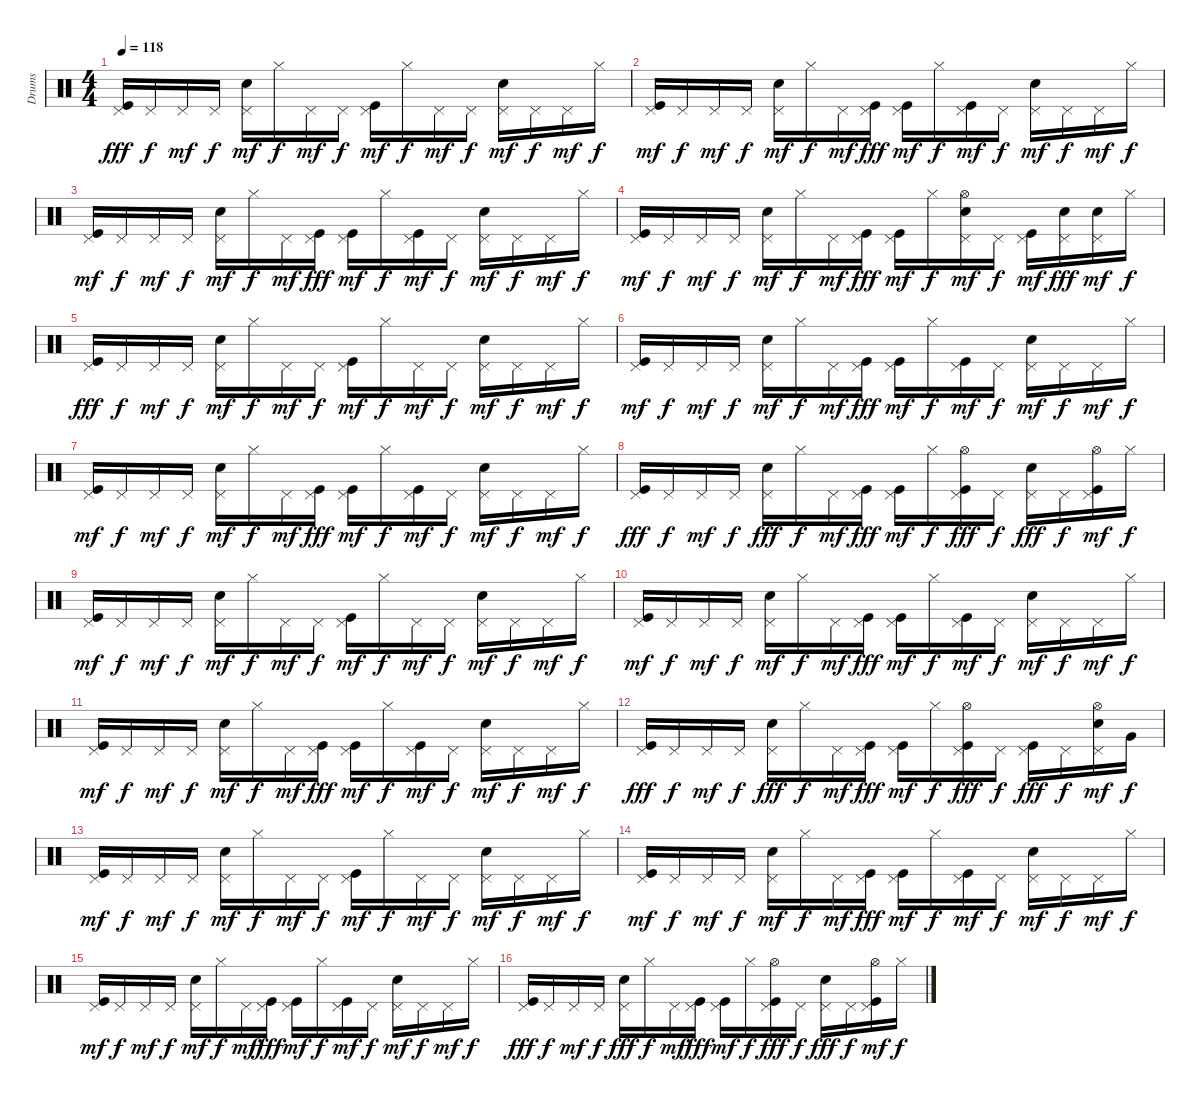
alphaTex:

\track ("Drums" "Drums") {instrument percussion}
\staff {score}
\articulation defaults
\ts (4 4)
\tempo 118
\clef neutral
\ks c
("Pedal Hi-Hat (hit)" "Kick (hit)").16{dy fff} "Pedal Hi-Hat (hit)".16{dy f} "Pedal Hi-Hat (hit)".16{dy mf} "Pedal Hi-Hat (hit)".16{dy f} ("Electric Snare (hit)" "Pedal Hi-Hat (hit)").16{dy mf} "Hi-Hat (closed)".16{dy f} "Pedal Hi-Hat (hit)".16{dy mf} "Pedal Hi-Hat (hit)".16{dy f} ("Kick (hit)" "Pedal Hi-Hat (hit)").16{dy mf} "Hi-Hat (closed)".16{dy f} "Pedal Hi-Hat (hit)".16{dy mf} "Pedal Hi-Hat (hit)".16{dy f} ("Electric Snare (hit)" "Pedal Hi-Hat (hit)").16{dy mf} "Pedal Hi-Hat (hit)".16{dy f} "Pedal Hi-Hat (hit)".16{dy mf} "Hi-Hat (closed)".16{dy f} |
("Kick (hit)" "Pedal Hi-Hat (hit)").16{dy mf} "Pedal Hi-Hat (hit)".16{dy f} "Pedal Hi-Hat (hit)".16{dy mf} "Pedal Hi-Hat (hit)".16{dy f} ("Electric Snare (hit)" "Pedal Hi-Hat (hit)").16{dy mf} "Hi-Hat (closed)".16{dy f} "Pedal Hi-Hat (hit)".16{dy mf} ("Kick (hit)" "Pedal Hi-Hat (hit)").16{dy fff} ("Kick (hit)" "Pedal Hi-Hat (hit)").16{dy mf} "Hi-Hat (closed)".16{dy f} ("Kick (hit)" "Pedal Hi-Hat (hit)").16{dy mf} "Pedal Hi-Hat (hit)".16{dy f} ("Electric Snare (hit)" "Pedal Hi-Hat (hit)").16{dy mf} "Pedal Hi-Hat (hit)".16{dy f} "Pedal Hi-Hat (hit)".16{dy mf} "Hi-Hat (closed)".16{dy f} |
("Kick (hit)" "Pedal Hi-Hat (hit)").16{dy mf} "Pedal Hi-Hat (hit)".16{dy f} "Pedal Hi-Hat (hit)".16{dy mf} "Pedal Hi-Hat (hit)".16{dy f} ("Electric Snare (hit)" "Pedal Hi-Hat (hit)").16{dy mf} "Hi-Hat (closed)".16{dy f} "Pedal Hi-Hat (hit)".16{dy mf} ("Kick (hit)" "Pedal Hi-Hat (hit)").16{dy fff} ("Kick (hit)" "Pedal Hi-Hat (hit)").16{dy mf} "Hi-Hat (closed)".16{dy f} ("Kick (hit)" "Pedal Hi-Hat (hit)").16{dy mf} "Pedal Hi-Hat (hit)".16{dy f} ("Electric Snare (hit)" "Pedal Hi-Hat (hit)").16{dy mf} "Pedal Hi-Hat (hit)".16{dy f} "Pedal Hi-Hat (hit)".16{dy mf} "Hi-Hat (closed)".16{dy f} |
("Kick (hit)" "Pedal Hi-Hat (hit)").16{dy mf} "Pedal Hi-Hat (hit)".16{dy f} "Pedal Hi-Hat (hit)".16{dy mf} "Pedal Hi-Hat (hit)".16{dy f} ("Electric Snare (hit)" "Pedal Hi-Hat (hit)").16{dy mf} "Hi-Hat (closed)".16{dy f} "Pedal Hi-Hat (hit)".16{dy mf} ("Kick (hit)" "Pedal Hi-Hat (hit)").16{dy fff} ("Kick (hit)" "Pedal Hi-Hat (hit)").16{dy mf} "Hi-Hat (closed)".16{dy f} ("Electric Snare (hit)" "Pedal Hi-Hat (hit)" "Hi-Hat (open)").16{dy mf} "Pedal Hi-Hat (hit)".16{dy f} ("Kick (hit)" "Pedal Hi-Hat (hit)").16{dy mf} ("Electric Snare (hit)" "Pedal Hi-Hat (hit)").16{dy fff} ("Electric Snare (hit)" "Pedal Hi-Hat (hit)").16{dy mf} "Hi-Hat (closed)".16{dy f} |
("Pedal Hi-Hat (hit)" "Kick (hit)").16{dy fff} "Pedal Hi-Hat (hit)".16{dy f} "Pedal Hi-Hat (hit)".16{dy mf} "Pedal Hi-Hat (hit)".16{dy f} ("Electric Snare (hit)" "Pedal Hi-Hat (hit)").16{dy mf} "Hi-Hat (closed)".16{dy f} "Pedal Hi-Hat (hit)".16{dy mf} "Pedal Hi-Hat (hit)".16{dy f} ("Kick (hit)" "Pedal Hi-Hat (hit)").16{dy mf} "Hi-Hat (closed)".16{dy f} "Pedal Hi-Hat (hit)".16{dy mf} "Pedal Hi-Hat (hit)".16{dy f} ("Electric Snare (hit)" "Pedal Hi-Hat (hit)").16{dy mf} "Pedal Hi-Hat (hit)".16{dy f} "Pedal Hi-Hat (hit)".16{dy mf} "Hi-Hat (closed)".16{dy f} |
("Kick (hit)" "Pedal Hi-Hat (hit)").16{dy mf} "Pedal Hi-Hat (hit)".16{dy f} "Pedal Hi-Hat (hit)".16{dy mf} "Pedal Hi-Hat (hit)".16{dy f} ("Electric Snare (hit)" "Pedal Hi-Hat (hit)").16{dy mf} "Hi-Hat (closed)".16{dy f} "Pedal Hi-Hat (hit)".16{dy mf} ("Kick (hit)" "Pedal Hi-Hat (hit)").16{dy fff} ("Kick (hit)" "Pedal Hi-Hat (hit)").16{dy mf} "Hi-Hat (closed)".16{dy f} ("Kick (hit)" "Pedal Hi-Hat (hit)").16{dy mf} "Pedal Hi-Hat (hit)".16{dy f} ("Electric Snare (hit)" "Pedal Hi-Hat (hit)").16{dy mf} "Pedal Hi-Hat (hit)".16{dy f} "Pedal Hi-Hat (hit)".16{dy mf} "Hi-Hat (closed)".16{dy f} |
("Kick (hit)" "Pedal Hi-Hat (hit)").16{dy mf} "Pedal Hi-Hat (hit)".16{dy f} "Pedal Hi-Hat (hit)".16{dy mf} "Pedal Hi-Hat (hit)".16{dy f} ("Electric Snare (hit)" "Pedal Hi-Hat (hit)").16{dy mf} "Hi-Hat (closed)".16{dy f} "Pedal Hi-Hat (hit)".16{dy mf} ("Kick (hit)" "Pedal Hi-Hat (hit)").16{dy fff} ("Kick (hit)" "Pedal Hi-Hat (hit)").16{dy mf} "Hi-Hat (closed)".16{dy f} ("Kick (hit)" "Pedal Hi-Hat (hit)").16{dy mf} "Pedal Hi-Hat (hit)".16{dy f} ("Electric Snare (hit)" "Pedal Hi-Hat (hit)").16{dy mf} "Pedal Hi-Hat (hit)".16{dy f} "Pedal Hi-Hat (hit)".16{dy mf} "Hi-Hat (closed)".16{dy f} |
("Pedal Hi-Hat (hit)" "Kick (hit)").16{dy fff} "Pedal Hi-Hat (hit)".16{dy f} "Pedal Hi-Hat (hit)".16{dy mf} "Pedal Hi-Hat (hit)".16{dy f} ("Pedal Hi-Hat (hit)" "Electric Snare (hit)").16{dy fff} "Hi-Hat (closed)".16{dy f} "Pedal Hi-Hat (hit)".16{dy mf} ("Pedal Hi-Hat (hit)" "Kick (hit)").16{dy fff} ("Pedal Hi-Hat (hit)" "Kick (hit)").16{dy mf} "Hi-Hat (closed)".16{dy f} ("Pedal Hi-Hat (hit)" "Hi-Hat (open)" "Kick (hit)").16{dy fff} "Pedal Hi-Hat (hit)".16{dy f} ("Pedal Hi-Hat (hit)" "Electric Snare (hit)").16{dy fff} "Pedal Hi-Hat (hit)".16{dy f} ("Pedal Hi-Hat (hit)" "Kick (hit)" "Hi-Hat (open)").16{dy mf} "Hi-Hat (closed)".16{dy f} |
("Kick (hit)" "Pedal Hi-Hat (hit)").16{dy mf} "Pedal Hi-Hat (hit)".16{dy f} "Pedal Hi-Hat (hit)".16{dy mf} "Pedal Hi-Hat (hit)".16{dy f} ("Electric Snare (hit)" "Pedal Hi-Hat (hit)").16{dy mf} "Hi-Hat (closed)".16{dy f} "Pedal Hi-Hat (hit)".16{dy mf} "Pedal Hi-Hat (hit)".16{dy f} ("Kick (hit)" "Pedal Hi-Hat (hit)").16{dy mf} "Hi-Hat (closed)".16{dy f} "Pedal Hi-Hat (hit)".16{dy mf} "Pedal Hi-Hat (hit)".16{dy f} ("Electric Snare (hit)" "Pedal Hi-Hat (hit)").16{dy mf} "Pedal Hi-Hat (hit)".16{dy f} "Pedal Hi-Hat (hit)".16{dy mf} "Hi-Hat (closed)".16{dy f} |
("Kick (hit)" "Pedal Hi-Hat (hit)").16{dy mf} "Pedal Hi-Hat (hit)".16{dy f} "Pedal Hi-Hat (hit)".16{dy mf} "Pedal Hi-Hat (hit)".16{dy f} ("Electric Snare (hit)" "Pedal Hi-Hat (hit)").16{dy mf} "Hi-Hat (closed)".16{dy f} "Pedal Hi-Hat (hit)".16{dy mf} ("Kick (hit)" "Pedal Hi-Hat (hit)").16{dy fff} ("Kick (hit)" "Pedal Hi-Hat (hit)").16{dy mf} "Hi-Hat (closed)".16{dy f} ("Kick (hit)" "Pedal Hi-Hat (hit)").16{dy mf} "Pedal Hi-Hat (hit)".16{dy f} ("Electric Snare (hit)" "Pedal Hi-Hat (hit)").16{dy mf} "Pedal Hi-Hat (hit)".16{dy f} "Pedal Hi-Hat (hit)".16{dy mf} "Hi-Hat (closed)".16{dy f} |
("Kick (hit)" "Pedal Hi-Hat (hit)").16{dy mf} "Pedal Hi-Hat (hit)".16{dy f} "Pedal Hi-Hat (hit)".16{dy mf} "Pedal Hi-Hat (hit)".16{dy f} ("Electric Snare (hit)" "Pedal Hi-Hat (hit)").16{dy mf} "Hi-Hat (closed)".16{dy f} "Pedal Hi-Hat (hit)".16{dy mf} ("Kick (hit)" "Pedal Hi-Hat (hit)").16{dy fff} ("Kick (hit)" "Pedal Hi-Hat (hit)").16{dy mf} "Hi-Hat (closed)".16{dy f} ("Kick (hit)" "Pedal Hi-Hat (hit)").16{dy mf} "Pedal Hi-Hat (hit)".16{dy f} ("Electric Snare (hit)" "Pedal Hi-Hat (hit)").16{dy mf} "Pedal Hi-Hat (hit)".16{dy f} "Pedal Hi-Hat (hit)".16{dy mf} "Hi-Hat (closed)".16{dy f} |
("Pedal Hi-Hat (hit)" "Kick (hit)").16{dy fff} "Pedal Hi-Hat (hit)".16{dy f} "Pedal Hi-Hat (hit)".16{dy mf} "Pedal Hi-Hat (hit)".16{dy f} ("Pedal Hi-Hat (hit)" "Electric Snare (hit)").16{dy fff} "Hi-Hat (closed)".16{dy f} "Pedal Hi-Hat (hit)".16{dy mf} ("Pedal Hi-Hat (hit)" "Kick (hit)").16{dy fff} ("Pedal Hi-Hat (hit)" "Kick (hit)").16{dy mf} "Hi-Hat (closed)".16{dy f} ("Pedal Hi-Hat (hit)" "Hi-Hat (open)" "Kick (hit)").16{dy fff} "Pedal Hi-Hat (hit)".16{dy f} ("Pedal Hi-Hat (hit)" "Kick (hit)").16{dy fff} "Pedal Hi-Hat (hit)".16{dy f} ("Pedal Hi-Hat (hit)" "Hi-Hat (open)" "Electric Snare (hit)").16{dy mf} "Very Low Tom (hit)".16{dy f} |
("Kick (hit)" "Pedal Hi-Hat (hit)").16{dy mf} "Pedal Hi-Hat (hit)".16{dy f} "Pedal Hi-Hat (hit)".16{dy mf} "Pedal Hi-Hat (hit)".16{dy f} ("Electric Snare (hit)" "Pedal Hi-Hat (hit)").16{dy mf} "Hi-Hat (closed)".16{dy f} "Pedal Hi-Hat (hit)".16{dy mf} "Pedal Hi-Hat (hit)".16{dy f} ("Kick (hit)" "Pedal Hi-Hat (hit)").16{dy mf} "Hi-Hat (closed)".16{dy f} "Pedal Hi-Hat (hit)".16{dy mf} "Pedal Hi-Hat (hit)".16{dy f} ("Electric Snare (hit)" "Pedal Hi-Hat (hit)").16{dy mf} "Pedal Hi-Hat (hit)".16{dy f} "Pedal Hi-Hat (hit)".16{dy mf} "Hi-Hat (closed)".16{dy f} |
("Kick (hit)" "Pedal Hi-Hat (hit)").16{dy mf} "Pedal Hi-Hat (hit)".16{dy f} "Pedal Hi-Hat (hit)".16{dy mf} "Pedal Hi-Hat (hit)".16{dy f} ("Electric Snare (hit)" "Pedal Hi-Hat (hit)").16{dy mf} "Hi-Hat (closed)".16{dy f} "Pedal Hi-Hat (hit)".16{dy mf} ("Kick (hit)" "Pedal Hi-Hat (hit)").16{dy fff} ("Kick (hit)" "Pedal Hi-Hat (hit)").16{dy mf} "Hi-Hat (closed)".16{dy f} ("Kick (hit)" "Pedal Hi-Hat (hit)").16{dy mf} "Pedal Hi-Hat (hit)".16{dy f} ("Electric Snare (hit)" "Pedal Hi-Hat (hit)").16{dy mf} "Pedal Hi-Hat (hit)".16{dy f} "Pedal Hi-Hat (hit)".16{dy mf} "Hi-Hat (closed)".16{dy f} |
("Kick (hit)" "Pedal Hi-Hat (hit)").16{dy mf} "Pedal Hi-Hat (hit)".16{dy f} "Pedal Hi-Hat (hit)".16{dy mf} "Pedal Hi-Hat (hit)".16{dy f} ("Electric Snare (hit)" "Pedal Hi-Hat (hit)").16{dy mf} "Hi-Hat (closed)".16{dy f} "Pedal Hi-Hat (hit)".16{dy mf} ("Kick (hit)" "Pedal Hi-Hat (hit)").16{dy fff} ("Kick (hit)" "Pedal Hi-Hat (hit)").16{dy mf} "Hi-Hat (closed)".16{dy f} ("Kick (hit)" "Pedal Hi-Hat (hit)").16{dy mf} "Pedal Hi-Hat (hit)".16{dy f} ("Electric Snare (hit)" "Pedal Hi-Hat (hit)").16{dy mf} "Pedal Hi-Hat (hit)".16{dy f} "Pedal Hi-Hat (hit)".16{dy mf} "Hi-Hat (closed)".16{dy f} |
("Pedal Hi-Hat (hit)" "Kick (hit)").16{dy fff} "Pedal Hi-Hat (hit)".16{dy f} "Pedal Hi-Hat (hit)".16{dy mf} "Pedal Hi-Hat (hit)".16{dy f} ("Pedal Hi-Hat (hit)" "Electric Snare (hit)").16{dy fff} "Hi-Hat (closed)".16{dy f} "Pedal Hi-Hat (hit)".16{dy mf} ("Pedal Hi-Hat (hit)" "Kick (hit)").16{dy fff} ("Pedal Hi-Hat (hit)" "Kick (hit)").16{dy mf} "Hi-Hat (closed)".16{dy f} ("Pedal Hi-Hat (hit)" "Hi-Hat (open)" "Kick (hit)").16{dy fff} "Pedal Hi-Hat (hit)".16{dy f} ("Pedal Hi-Hat (hit)" "Electric Snare (hit)").16{dy fff} "Pedal Hi-Hat (hit)".16{dy f} ("Pedal Hi-Hat (hit)" "Kick (hit)" "Hi-Hat (open)").16{dy mf} "Hi-Hat (closed)".16{dy f}
